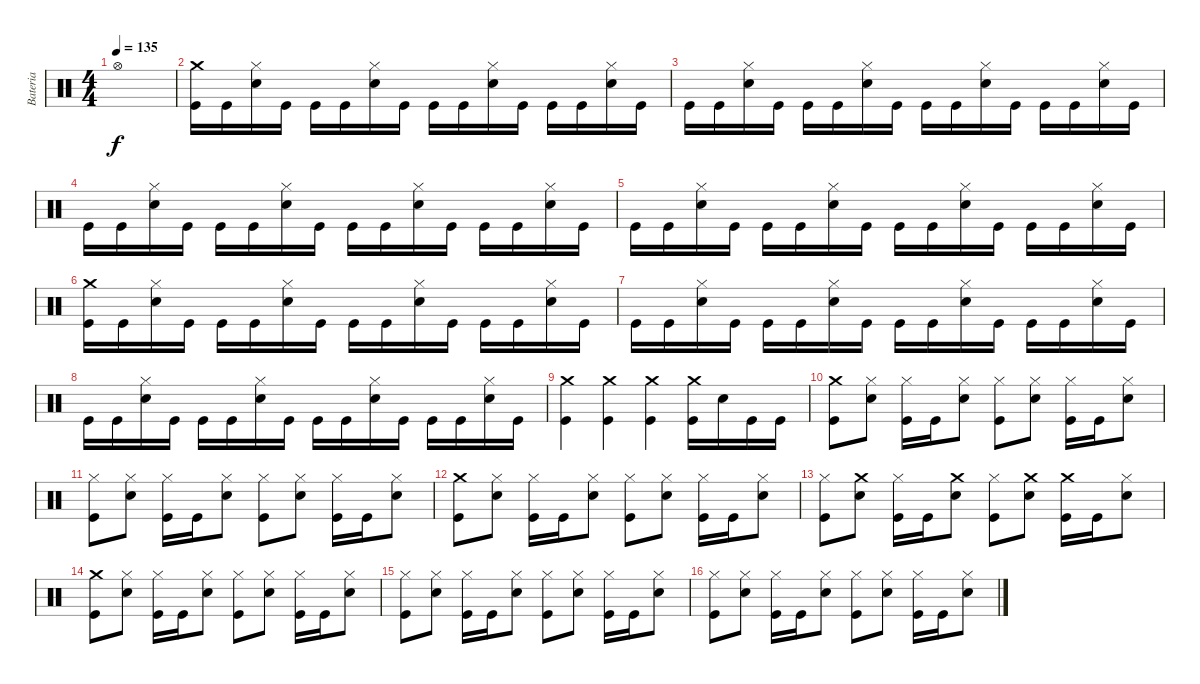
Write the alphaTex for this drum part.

\track ("Bateria" "Bateria") {instrument percussion}
\staff {score}
\articulation defaults
\ts (4 4)
\tempo 135
\clef neutral
\ks c "Hi-Hat (open)".1{dy f}
|
("Crash medium (hit)" "Kick (hit)").16 "Kick (hit)".16 ("Snare (hit) 2" "Hi-Hat (closed)").16 "Kick (hit)".16 "Kick (hit)".16 "Kick (hit)".16 ("Snare (hit) 2" "Hi-Hat (closed)").16 "Kick (hit)".16 "Kick (hit)".16 "Kick (hit)".16 ("Snare (hit) 2" "Hi-Hat (closed)").16 "Kick (hit)".16 "Kick (hit)".16 "Kick (hit)".16 ("Snare (hit) 2" "Hi-Hat (closed)").16 "Kick (hit)".16 |
"Kick (hit)".16 "Kick (hit)".16 ("Snare (hit) 2" "Hi-Hat (closed)").16 "Kick (hit)".16 "Kick (hit)".16 "Kick (hit)".16 ("Snare (hit) 2" "Hi-Hat (closed)").16 "Kick (hit)".16 "Kick (hit)".16 "Kick (hit)".16 ("Snare (hit) 2" "Hi-Hat (closed)").16 "Kick (hit)".16 "Kick (hit)".16 "Kick (hit)".16 ("Snare (hit) 2" "Hi-Hat (closed)").16 "Kick (hit)".16 |
"Kick (hit)".16 "Kick (hit)".16 ("Snare (hit) 2" "Hi-Hat (closed)").16 "Kick (hit)".16 "Kick (hit)".16 "Kick (hit)".16 ("Snare (hit) 2" "Hi-Hat (closed)").16 "Kick (hit)".16 "Kick (hit)".16 "Kick (hit)".16 ("Snare (hit) 2" "Hi-Hat (closed)").16 "Kick (hit)".16 "Kick (hit)".16 "Kick (hit)".16 ("Snare (hit) 2" "Hi-Hat (closed)").16 "Kick (hit)".16 |
"Kick (hit)".16 "Kick (hit)".16 ("Snare (hit) 2" "Hi-Hat (closed)").16 "Kick (hit)".16 "Kick (hit)".16 "Kick (hit)".16 ("Snare (hit) 2" "Hi-Hat (closed)").16 "Kick (hit)".16 "Kick (hit)".16 "Kick (hit)".16 ("Snare (hit) 2" "Hi-Hat (closed)").16 "Kick (hit)".16 "Kick (hit)".16 "Kick (hit)".16 ("Snare (hit) 2" "Hi-Hat (closed)").16 "Kick (hit)".16 |
("Crash medium (hit)" "Kick (hit)").16 "Kick (hit)".16 ("Snare (hit) 2" "Hi-Hat (closed)").16 "Kick (hit)".16 "Kick (hit)".16 "Kick (hit)".16 ("Snare (hit) 2" "Hi-Hat (closed)").16 "Kick (hit)".16 "Kick (hit)".16 "Kick (hit)".16 ("Snare (hit) 2" "Hi-Hat (closed)").16 "Kick (hit)".16 "Kick (hit)".16 "Kick (hit)".16 ("Snare (hit) 2" "Hi-Hat (closed)").16 "Kick (hit)".16 |
"Kick (hit)".16 "Kick (hit)".16 ("Snare (hit) 2" "Hi-Hat (closed)").16 "Kick (hit)".16 "Kick (hit)".16 "Kick (hit)".16 ("Snare (hit) 2" "Hi-Hat (closed)").16 "Kick (hit)".16 "Kick (hit)".16 "Kick (hit)".16 ("Snare (hit) 2" "Hi-Hat (closed)").16 "Kick (hit)".16 "Kick (hit)".16 "Kick (hit)".16 ("Snare (hit) 2" "Hi-Hat (closed)").16 "Kick (hit)".16 |
"Kick (hit)".16 "Kick (hit)".16 ("Snare (hit) 2" "Hi-Hat (closed)").16 "Kick (hit)".16 "Kick (hit)".16 "Kick (hit)".16 ("Snare (hit) 2" "Hi-Hat (closed)").16 "Kick (hit)".16 "Kick (hit)".16 "Kick (hit)".16 ("Snare (hit) 2" "Hi-Hat (closed)").16 "Kick (hit)".16 "Kick (hit)".16 "Kick (hit)".16 ("Snare (hit) 2" "Hi-Hat (closed)").16 "Kick (hit)".16 |
("Kick (hit)" "Crash medium (hit)").4 ("Kick (hit)" "Crash medium (hit)").4 ("Kick (hit)" "Crash medium (hit)").4 ("Kick (hit)" "Crash medium (hit)").16 "Snare (hit) 2".16 "Kick (hit)".16 "Kick (hit)".16 |
("Kick (hit)" "Crash medium (hit)").8 ("Snare (hit) 2" "Hi-Hat (closed)").8 ("Kick (hit)" "Hi-Hat (closed)").16 "Kick (hit)".16 ("Snare (hit) 2" "Hi-Hat (closed)").8 ("Kick (hit)" "Hi-Hat (closed)").8 ("Snare (hit) 2" "Hi-Hat (closed)").8 ("Kick (hit)" "Hi-Hat (closed)").16 "Kick (hit)".16 ("Snare (hit) 2" "Hi-Hat (closed)").8 |
("Kick (hit)" "Hi-Hat (closed)").8 ("Snare (hit) 2" "Hi-Hat (closed)").8 ("Kick (hit)" "Hi-Hat (closed)").16 "Kick (hit)".16 ("Snare (hit) 2" "Hi-Hat (closed)").8 ("Kick (hit)" "Hi-Hat (closed)").8 ("Snare (hit) 2" "Hi-Hat (closed)").8 ("Kick (hit)" "Hi-Hat (closed)").16 "Kick (hit)".16 ("Snare (hit) 2" "Hi-Hat (closed)").8 |
("Kick (hit)" "Crash medium (hit)").8 ("Snare (hit) 2" "Hi-Hat (closed)").8 ("Kick (hit)" "Hi-Hat (closed)").16 "Kick (hit)".16 ("Snare (hit) 2" "Hi-Hat (closed)").8 ("Kick (hit)" "Hi-Hat (closed)").8 ("Snare (hit) 2" "Hi-Hat (closed)").8 ("Kick (hit)" "Hi-Hat (closed)").16 "Kick (hit)".16 ("Snare (hit) 2" "Hi-Hat (closed)").8 |
("Kick (hit)" "Hi-Hat (closed)").8 ("Snare (hit) 2" "Crash medium (hit)").8 ("Kick (hit)" "Hi-Hat (closed)").16 "Kick (hit)".16 ("Snare (hit) 2" "Crash medium (hit)").8 ("Kick (hit)" "Hi-Hat (closed)").8 ("Snare (hit) 2" "Crash medium (hit)").8 ("Kick (hit)" "Crash medium (hit)").16 "Kick (hit)".16 ("Snare (hit) 2" "Hi-Hat (closed)").8 |
("Kick (hit)" "Crash medium (hit)").8 ("Snare (hit) 2" "Hi-Hat (closed)").8 ("Kick (hit)" "Hi-Hat (closed)").16 "Kick (hit)".16 ("Snare (hit) 2" "Hi-Hat (closed)").8 ("Kick (hit)" "Hi-Hat (closed)").8 ("Snare (hit) 2" "Hi-Hat (closed)").8 ("Kick (hit)" "Hi-Hat (closed)").16 "Kick (hit)".16 ("Snare (hit) 2" "Hi-Hat (closed)").8 |
("Kick (hit)" "Hi-Hat (closed)").8 ("Snare (hit) 2" "Hi-Hat (closed)").8 ("Kick (hit)" "Hi-Hat (closed)").16 "Kick (hit)".16 ("Snare (hit) 2" "Hi-Hat (closed)").8 ("Kick (hit)" "Hi-Hat (closed)").8 ("Snare (hit) 2" "Hi-Hat (closed)").8 ("Kick (hit)" "Hi-Hat (closed)").16 "Kick (hit)".16 ("Snare (hit) 2" "Hi-Hat (closed)").8 |
("Kick (hit)" "Hi-Hat (closed)").8 ("Snare (hit) 2" "Hi-Hat (closed)").8 ("Kick (hit)" "Hi-Hat (closed)").16 "Kick (hit)".16 ("Snare (hit) 2" "Hi-Hat (closed)").8 ("Kick (hit)" "Hi-Hat (closed)").8 ("Snare (hit) 2" "Hi-Hat (closed)").8 ("Kick (hit)" "Hi-Hat (closed)").16 "Kick (hit)".16 ("Snare (hit) 2" "Hi-Hat (closed)").8
